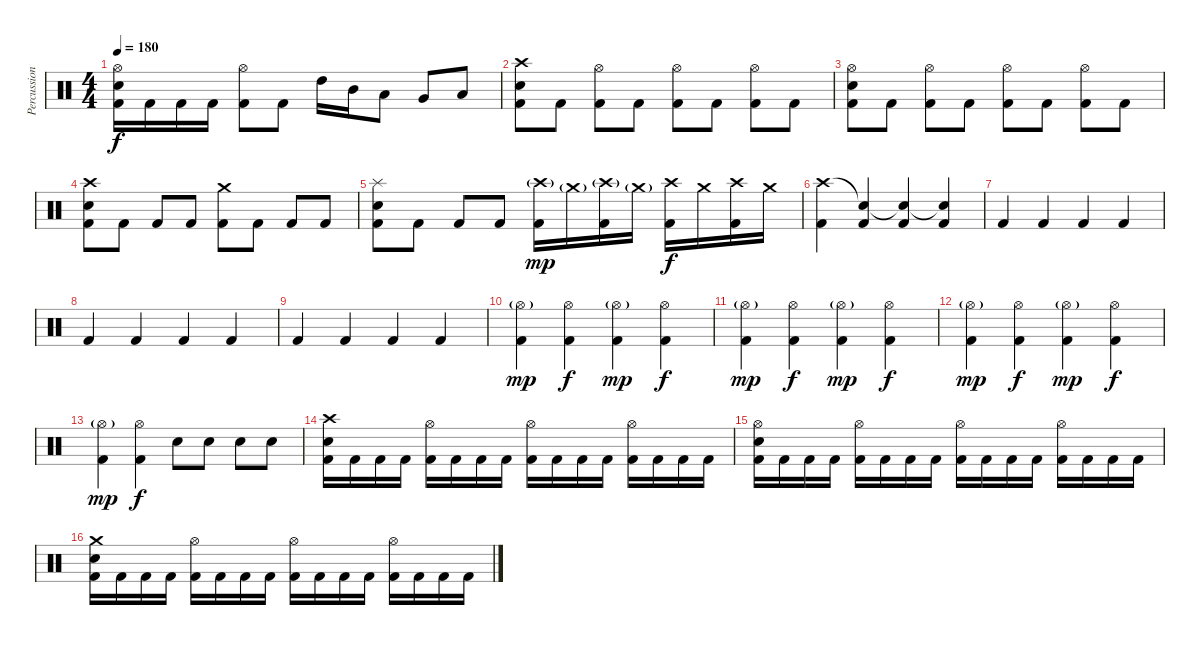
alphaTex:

\track ("Percussion" "Percussion") {instrument percussion}
\staff {score}
\articulation defaults
\ts (4 4)
\tempo 180
\clef neutral
\ks c
("Hi-Hat (open)" "Snare (hit) 2" "Kick (hit) 2").16{dy f} "Kick (hit) 2".16 "Kick (hit) 2".16 "Kick (hit) 2".16 ("Hi-Hat (open)" "Kick (hit) 2").8 "Kick (hit) 2".8 "High Tom (hit)".16 "Mid Tom (hit)".16 "Low Tom (hit)".8 "Very Low Tom (hit)".8 "Low Floor Tom (hit)".8 |
("Crash high (hit)" "Snare (hit) 2" "Kick (hit) 2").8 "Kick (hit) 2".8 ("Hi-Hat (open)" "Kick (hit) 2").8 "Kick (hit) 2".8 ("Hi-Hat (open)" "Kick (hit) 2").8 "Kick (hit) 2".8 ("Hi-Hat (open)" "Kick (hit) 2").8 "Kick (hit) 2".8 |
("Hi-Hat (open)" "Snare (hit) 2" "Kick (hit) 2").8 "Kick (hit) 2".8 ("Hi-Hat (open)" "Kick (hit) 2").8 "Kick (hit) 2".8 ("Hi-Hat (open)" "Kick (hit) 2").8 "Kick (hit) 2".8 ("Hi-Hat (open)" "Kick (hit) 2").8 "Kick (hit) 2".8 |
("Crash high (hit)" "Snare (hit) 2" "Kick (hit) 2").8 "Kick (hit) 2".8 "Kick (hit) 2".8 "Kick (hit) 2".8 ("Crash medium (hit)" "Kick (hit) 2").8 "Kick (hit) 2".8 "Kick (hit) 2".8 "Kick (hit) 2".8 |
("Splash (hit)" "Snare (hit) 2" "Kick (hit) 2").8 "Kick (hit) 2".8 "Kick (hit) 2".8 "Kick (hit) 2".8 ("Crash high (hit)"{g} "Kick (hit) 2").16{dy mp} "Crash medium (hit)"{g}.16 ("Crash high (hit)"{g} "Kick (hit) 2").16 "Crash medium (hit)"{g}.16 ("Crash high (hit)" "Kick (hit) 2").16{dy f} "Crash medium (hit)".16 ("Crash high (hit)" "Kick (hit) 2").16 "Crash medium (hit)".16 |
("Crash high (hit)" "Kick (hit) 2").4 ("Snare (hit)"{t} "Kick (hit) 2").4 ("Snare (hit)"{t} "Kick (hit) 2").4 ("Snare (hit)"{t} "Kick (hit) 2").4 |
"Kick (hit) 2".4 "Kick (hit) 2".4 "Kick (hit) 2".4 "Kick (hit) 2".4 |
"Kick (hit) 2".4 "Kick (hit) 2".4 "Kick (hit) 2".4 "Kick (hit) 2".4 |
"Kick (hit) 2".4 "Kick (hit) 2".4 "Kick (hit) 2".4 "Kick (hit) 2".4 |
("Hi-Hat (open)"{g} "Kick (hit) 2").4{dy mp} ("Hi-Hat (open)" "Kick (hit) 2").4{dy f} ("Hi-Hat (open)"{g} "Kick (hit) 2").4{dy mp} ("Hi-Hat (open)" "Kick (hit) 2").4{dy f} |
("Hi-Hat (open)"{g} "Kick (hit) 2").4{dy mp} ("Hi-Hat (open)" "Kick (hit) 2").4{dy f} ("Hi-Hat (open)"{g} "Kick (hit) 2").4{dy mp} ("Hi-Hat (open)" "Kick (hit) 2").4{dy f} |
("Hi-Hat (open)"{g} "Kick (hit) 2").4{dy mp} ("Hi-Hat (open)" "Kick (hit) 2").4{dy f} ("Hi-Hat (open)"{g} "Kick (hit) 2").4{dy mp} ("Hi-Hat (open)" "Kick (hit) 2").4{dy f} |
("Hi-Hat (open)"{g} "Kick (hit) 2").4{dy mp} ("Hi-Hat (open)" "Kick (hit) 2").4{dy f} "Snare (hit) 2".8 "Snare (hit) 2".8 "Snare (hit) 2".8 "Snare (hit) 2".8 |
("Crash high (hit)" "Snare (hit) 2" "Kick (hit) 2").16 "Kick (hit) 2".16 "Kick (hit) 2".16 "Kick (hit) 2".16 ("Hi-Hat (open)" "Kick (hit) 2").16 "Kick (hit) 2".16 "Kick (hit) 2".16 "Kick (hit) 2".16 ("Hi-Hat (open)" "Kick (hit) 2").16 "Kick (hit) 2".16 "Kick (hit) 2".16 "Kick (hit) 2".16 ("Hi-Hat (open)" "Kick (hit) 2").16 "Kick (hit) 2".16 "Kick (hit) 2".16 "Kick (hit) 2".16 |
("Hi-Hat (open)" "Snare (hit) 2" "Kick (hit) 2").16 "Kick (hit) 2".16 "Kick (hit) 2".16 "Kick (hit) 2".16 ("Hi-Hat (open)" "Kick (hit) 2").16 "Kick (hit) 2".16 "Kick (hit) 2".16 "Kick (hit) 2".16 ("Hi-Hat (open)" "Kick (hit) 2").16 "Kick (hit) 2".16 "Kick (hit) 2".16 "Kick (hit) 2".16 ("Hi-Hat (open)" "Kick (hit) 2").16 "Kick (hit) 2".16 "Kick (hit) 2".16 "Kick (hit) 2".16 |
("Crash medium (hit)" "Snare (hit) 2" "Kick (hit) 2").16 "Kick (hit) 2".16 "Kick (hit) 2".16 "Kick (hit) 2".16 ("Hi-Hat (open)" "Kick (hit) 2").16 "Kick (hit) 2".16 "Kick (hit) 2".16 "Kick (hit) 2".16 ("Hi-Hat (open)" "Kick (hit) 2").16 "Kick (hit) 2".16 "Kick (hit) 2".16 "Kick (hit) 2".16 ("Hi-Hat (open)" "Kick (hit) 2").16 "Kick (hit) 2".16 "Kick (hit) 2".16 "Kick (hit) 2".16
